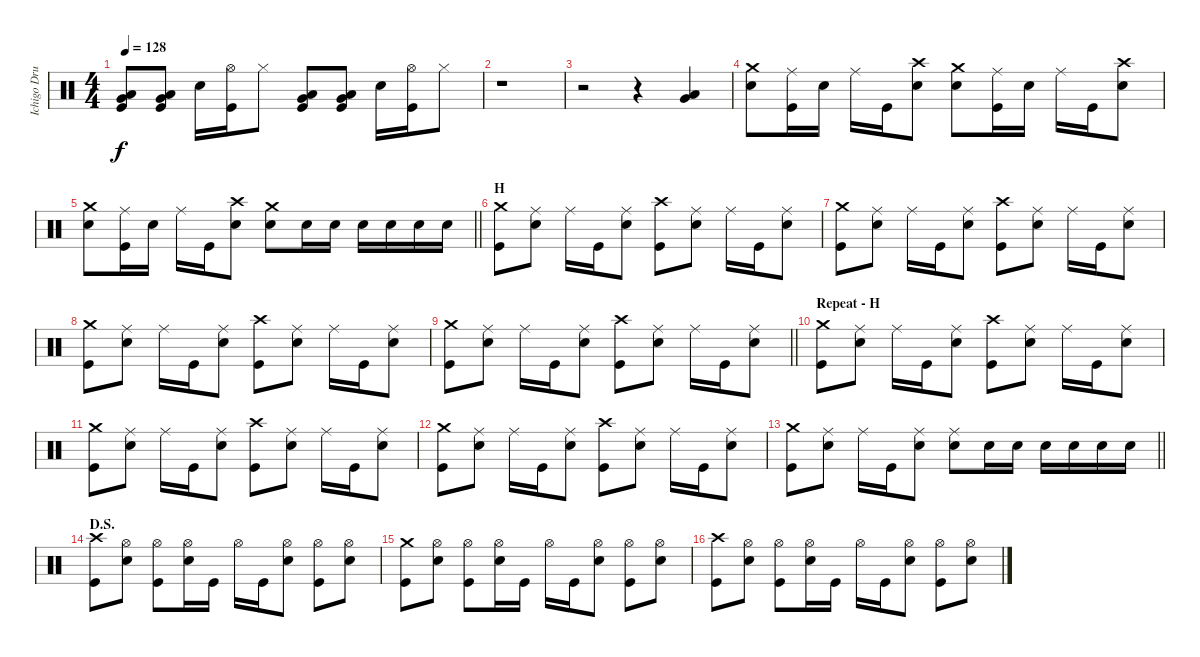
\track ("Ichigo Drums" "Ichigo Dru") {instrument percussion}
\staff {score}
\articulation defaults
\ts (4 4)
\tempo 128
\clef neutral
\ks c
("Low Tom (hit)" "Very Low Tom (hit)" "Kick (hit)").8{dy f} ("Low Tom (hit)" "Very Low Tom (hit)" "Kick (hit)").8 "Snare (hit) 2".16 ("Hi-Hat (open)" "Kick (hit)").16 "Hi-Hat (closed)".8 ("Low Tom (hit)" "Very Low Tom (hit)" "Kick (hit)").8 ("Low Tom (hit)" "Very Low Tom (hit)" "Kick (hit)").8 "Snare (hit) 2".16 ("Hi-Hat (open)" "Kick (hit)").16 "Hi-Hat (closed)".8 |
r.1 |
r.2 r.4 ("Low Tom (hit)" "Very Low Tom (hit)").4 |
("Crash medium (hit)" "Snare (hit) 2").8 ("Ride (middle)" "Kick (hit)").16 "Snare (hit) 2".16 "Ride (middle)".16 "Kick (hit)".16 ("Crash high (hit)" "Snare (hit) 2").8 ("Crash medium (hit)" "Snare (hit) 2").8 ("Ride (middle)" "Kick (hit)").16 "Snare (hit) 2".16 "Ride (middle)".16 "Kick (hit)".16 ("Crash high (hit)" "Snare (hit) 2").8 |
\barLineRight lightlight
("Crash medium (hit)" "Snare (hit) 2").8 ("Ride (middle)" "Kick (hit)").16 "Snare (hit) 2".16 "Ride (middle)".16 "Kick (hit)".16 ("Crash high (hit)" "Snare (hit) 2").8 ("Crash medium (hit)" "Snare (hit) 2").8 "Snare (hit) 2".16 "Snare (hit) 2".16 "Snare (hit) 2".16 "Snare (hit) 2".16 "Snare (hit) 2".16 "Snare (hit) 2".16 |
\section ("" "H")
("Crash medium (hit)" "Kick (hit)").8 ("Ride (middle)" "Snare (hit) 2").8 "Ride (middle)".16 "Kick (hit)".16 ("Ride (middle)" "Snare (hit) 2").8 ("Crash high (hit)" "Kick (hit)").8 ("Ride (middle)" "Snare (hit) 2").8 "Ride (middle)".16 "Kick (hit)".16 ("Ride (middle)" "Snare (hit) 2").8 |
("Crash medium (hit)" "Kick (hit)").8 ("Ride (middle)" "Snare (hit) 2").8 "Ride (middle)".16 "Kick (hit)".16 ("Ride (middle)" "Snare (hit) 2").8 ("Crash high (hit)" "Kick (hit)").8 ("Ride (middle)" "Snare (hit) 2").8 "Ride (middle)".16 "Kick (hit)".16 ("Ride (middle)" "Snare (hit) 2").8 |
("Crash medium (hit)" "Kick (hit)").8 ("Ride (middle)" "Snare (hit) 2").8 "Ride (middle)".16 "Kick (hit)".16 ("Ride (middle)" "Snare (hit) 2").8 ("Crash high (hit)" "Kick (hit)").8 ("Ride (middle)" "Snare (hit) 2").8 "Ride (middle)".16 "Kick (hit)".16 ("Ride (middle)" "Snare (hit) 2").8 |
\barLineRight lightlight
("Crash medium (hit)" "Kick (hit)").8 ("Ride (middle)" "Snare (hit) 2").8 "Ride (middle)".16 "Kick (hit)".16 ("Ride (middle)" "Snare (hit) 2").8 ("Crash high (hit)" "Kick (hit)").8 ("Ride (middle)" "Snare (hit) 2").8 "Ride (middle)".16 "Kick (hit)".16 ("Ride (middle)" "Snare (hit) 2").8 |
\section ("" "Repeat - H")
("Crash medium (hit)" "Kick (hit)").8 ("Ride (middle)" "Snare (hit) 2").8 "Ride (middle)".16 "Kick (hit)".16 ("Ride (middle)" "Snare (hit) 2").8 ("Crash high (hit)" "Kick (hit)").8 ("Ride (middle)" "Snare (hit) 2").8 "Ride (middle)".16 "Kick (hit)".16 ("Ride (middle)" "Snare (hit) 2").8 |
("Crash medium (hit)" "Kick (hit)").8 ("Ride (middle)" "Snare (hit) 2").8 "Ride (middle)".16 "Kick (hit)".16 ("Ride (middle)" "Snare (hit) 2").8 ("Crash high (hit)" "Kick (hit)").8 ("Ride (middle)" "Snare (hit) 2").8 "Ride (middle)".16 "Kick (hit)".16 ("Ride (middle)" "Snare (hit) 2").8 |
("Crash medium (hit)" "Kick (hit)").8 ("Ride (middle)" "Snare (hit) 2").8 "Ride (middle)".16 "Kick (hit)".16 ("Ride (middle)" "Snare (hit) 2").8 ("Crash high (hit)" "Kick (hit)").8 ("Ride (middle)" "Snare (hit) 2").8 "Ride (middle)".16 "Kick (hit)".16 ("Ride (middle)" "Snare (hit) 2").8 |
\barLineRight lightlight
("Crash medium (hit)" "Kick (hit)").8 ("Ride (middle)" "Snare (hit) 2").8 "Ride (middle)".16 "Kick (hit)".16 ("Ride (middle)" "Snare (hit) 2").8 ("Ride (middle)" "Snare (hit) 2").8 "Snare (hit) 2".16 "Snare (hit) 2".16 "Snare (hit) 2".16 "Snare (hit) 2".16 "Snare (hit) 2".16 "Snare (hit) 2".16 |
\section ("" "D.S. ")
("Crash high (hit)" "Kick (hit)").8 ("Hi-Hat (open)" "Snare (hit) 2").8 ("Hi-Hat (open)" "Kick (hit)").8 ("Hi-Hat (open)" "Snare (hit) 2").16 "Kick (hit)".16 "Hi-Hat (open)".16 "Kick (hit)".16 ("Hi-Hat (open)" "Snare (hit) 2").8 ("Hi-Hat (open)" "Kick (hit)").8 ("Hi-Hat (open)" "Snare (hit) 2").8 |
("Crash medium (hit)" "Kick (hit)").8 ("Hi-Hat (open)" "Snare (hit) 2").8 ("Hi-Hat (open)" "Kick (hit)").8 ("Hi-Hat (open)" "Snare (hit) 2").16 "Kick (hit)".16 "Hi-Hat (open)".16 "Kick (hit)".16 ("Hi-Hat (open)" "Snare (hit) 2").8 ("Hi-Hat (open)" "Kick (hit)").8 ("Hi-Hat (open)" "Snare (hit) 2").8 |
("Crash high (hit)" "Kick (hit)").8 ("Hi-Hat (open)" "Snare (hit) 2").8 ("Hi-Hat (open)" "Kick (hit)").8 ("Hi-Hat (open)" "Snare (hit) 2").16 "Kick (hit)".16 "Hi-Hat (open)".16 "Kick (hit)".16 ("Hi-Hat (open)" "Snare (hit) 2").8 ("Hi-Hat (open)" "Kick (hit)").8 ("Hi-Hat (open)" "Snare (hit) 2").8
